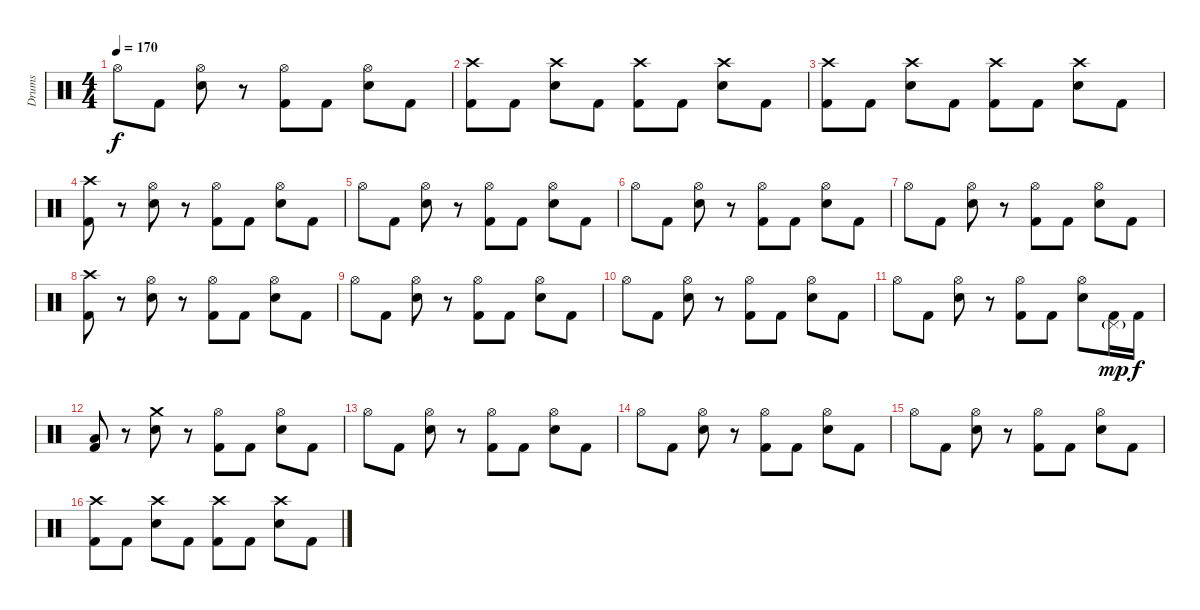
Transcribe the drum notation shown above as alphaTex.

\track ("Drums" "Drums") {instrument percussion}
\staff {score}
\articulation defaults
\ts (4 4)
\tempo 170
\clef neutral
\ks c "Hi-Hat (open)".8{dy f} "Kick (hit) 2".8
("Hi-Hat (open)" "Electric Snare (hit)").8 r.8 ("Hi-Hat (open)" "Kick (hit) 2").8 "Kick (hit) 2".8 ("Hi-Hat (open)" "Electric Snare (hit)").8 "Kick (hit) 2".8 |
("Crash high (hit)" "Kick (hit) 2").8 "Kick (hit) 2".8 ("Crash high (hit)" "Electric Snare (hit)").8 "Kick (hit) 2".8 ("Crash high (hit)" "Kick (hit) 2").8 "Kick (hit) 2".8 ("Crash high (hit)" "Electric Snare (hit)").8 "Kick (hit) 2".8 |
("Crash high (hit)" "Kick (hit) 2").8 "Kick (hit) 2".8 ("Crash high (hit)" "Electric Snare (hit)").8 "Kick (hit) 2".8 ("Crash high (hit)" "Kick (hit) 2").8 "Kick (hit) 2".8 ("Crash high (hit)" "Electric Snare (hit)").8 "Kick (hit) 2".8 |
("Crash high (hit)" "Kick (hit) 2").8 r.8 ("Hi-Hat (open)" "Electric Snare (hit)").8 r.8 ("Hi-Hat (open)" "Kick (hit) 2").8 "Kick (hit) 2".8 ("Hi-Hat (open)" "Electric Snare (hit)").8 "Kick (hit) 2".8 |
"Hi-Hat (open)".8 "Kick (hit) 2".8 ("Hi-Hat (open)" "Electric Snare (hit)").8 r.8 ("Hi-Hat (open)" "Kick (hit) 2").8 "Kick (hit) 2".8 ("Hi-Hat (open)" "Electric Snare (hit)").8 "Kick (hit) 2".8 |
"Hi-Hat (open)".8 "Kick (hit) 2".8 ("Hi-Hat (open)" "Electric Snare (hit)").8 r.8 ("Hi-Hat (open)" "Kick (hit) 2").8 "Kick (hit) 2".8 ("Hi-Hat (open)" "Electric Snare (hit)").8 "Kick (hit) 2".8 |
"Hi-Hat (open)".8 "Kick (hit) 2".8 ("Hi-Hat (open)" "Electric Snare (hit)").8 r.8 ("Hi-Hat (open)" "Kick (hit) 2").8 "Kick (hit) 2".8 ("Hi-Hat (open)" "Electric Snare (hit)").8 "Kick (hit) 2".8 |
("Crash high (hit)" "Kick (hit) 2").8 r.8 ("Hi-Hat (open)" "Electric Snare (hit)").8 r.8 ("Hi-Hat (open)" "Kick (hit) 2").8 "Kick (hit) 2".8 ("Hi-Hat (open)" "Electric Snare (hit)").8 "Kick (hit) 2".8 |
"Hi-Hat (open)".8 "Kick (hit) 2".8 ("Hi-Hat (open)" "Electric Snare (hit)").8 r.8 ("Hi-Hat (open)" "Kick (hit) 2").8 "Kick (hit) 2".8 ("Hi-Hat (open)" "Electric Snare (hit)").8 "Kick (hit) 2".8 |
"Hi-Hat (open)".8 "Kick (hit) 2".8 ("Hi-Hat (open)" "Electric Snare (hit)").8 r.8 ("Hi-Hat (open)" "Kick (hit) 2").8 "Kick (hit) 2".8 ("Hi-Hat (open)" "Electric Snare (hit)").8 "Kick (hit) 2".8 |
"Hi-Hat (open)".8 "Kick (hit) 2".8 ("Hi-Hat (open)" "Electric Snare (hit)").8 r.8 ("Hi-Hat (open)" "Kick (hit) 2").8 "Kick (hit) 2".8 ("Hi-Hat (open)" "Electric Snare (hit)").8 ("Pedal Hi-Hat (hit)"{g} "Kick (hit) 2").16{dy mp} "Kick (hit) 2".16{dy f} |
("Low Floor Tom (hit)" "Kick (hit) 2").8 r.8 ("Crash medium (hit)" "Electric Snare (hit)").8 r.8 ("Hi-Hat (open)" "Kick (hit) 2").8 "Kick (hit) 2".8 ("Hi-Hat (open)" "Electric Snare (hit)").8 "Kick (hit) 2".8 |
"Hi-Hat (open)".8 "Kick (hit) 2".8 ("Hi-Hat (open)" "Electric Snare (hit)").8 r.8 ("Hi-Hat (open)" "Kick (hit) 2").8 "Kick (hit) 2".8 ("Hi-Hat (open)" "Electric Snare (hit)").8 "Kick (hit) 2".8 |
"Hi-Hat (open)".8 "Kick (hit) 2".8 ("Hi-Hat (open)" "Electric Snare (hit)").8 r.8 ("Hi-Hat (open)" "Kick (hit) 2").8 "Kick (hit) 2".8 ("Hi-Hat (open)" "Electric Snare (hit)").8 "Kick (hit) 2".8 |
"Hi-Hat (open)".8 "Kick (hit) 2".8 ("Hi-Hat (open)" "Electric Snare (hit)").8 r.8 ("Hi-Hat (open)" "Kick (hit) 2").8 "Kick (hit) 2".8 ("Hi-Hat (open)" "Electric Snare (hit)").8 "Kick (hit) 2".8 |
("Crash high (hit)" "Kick (hit) 2").8 "Kick (hit) 2".8 ("Crash high (hit)" "Electric Snare (hit)").8 "Kick (hit) 2".8 ("Crash high (hit)" "Kick (hit) 2").8 "Kick (hit) 2".8 ("Crash high (hit)" "Electric Snare (hit)").8 "Kick (hit) 2".8
